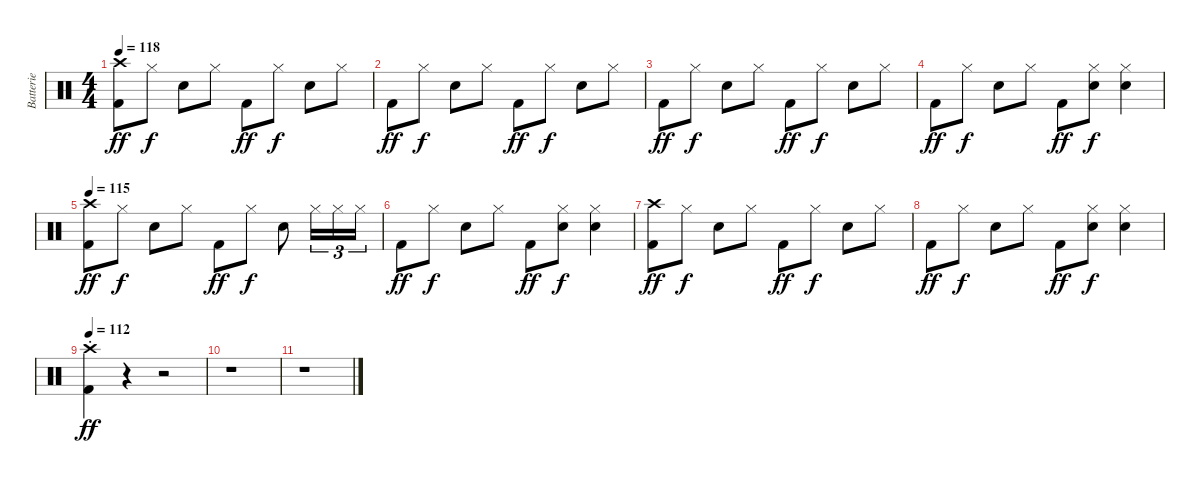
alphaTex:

\track ("Batterie" "Batterie") {instrument percussion}
\staff {score}
\articulation defaults
\ts (4 4)
\tempo 118
\clef neutral
\ks c
("Crash high (hit)" "Kick (hit) 2").8{dy ff} "Hi-Hat (closed)".8{dy f} "Snare (hit) 2".8 "Hi-Hat (closed)".8 "Kick (hit) 2".8{dy ff} "Hi-Hat (closed)".8{dy f} "Snare (hit) 2".8 "Hi-Hat (closed)".8 |
"Kick (hit) 2".8{dy ff} "Hi-Hat (closed)".8{dy f} "Snare (hit) 2".8 "Hi-Hat (closed)".8 "Kick (hit) 2".8{dy ff} "Hi-Hat (closed)".8{dy f} "Snare (hit) 2".8 "Hi-Hat (closed)".8 |
"Kick (hit) 2".8{dy ff} "Hi-Hat (closed)".8{dy f} "Snare (hit) 2".8 "Hi-Hat (closed)".8 "Kick (hit) 2".8{dy ff} "Hi-Hat (closed)".8{dy f} "Snare (hit) 2".8 "Hi-Hat (closed)".8 |
"Kick (hit) 2".8{dy ff} "Hi-Hat (closed)".8{dy f} "Snare (hit) 2".8 "Hi-Hat (closed)".8 "Kick (hit) 2".8{dy ff} ("Hi-Hat (closed)" "Snare (hit) 2").8{dy f} ("Hi-Hat (closed)" "Snare (hit) 2").4 |
\tempo 115
("Crash high (hit)" "Kick (hit) 2").8{dy ff} "Hi-Hat (closed)".8{dy f} "Snare (hit) 2".8 "Hi-Hat (closed)".8 "Kick (hit) 2".8{dy ff} "Hi-Hat (closed)".8{dy f} "Snare (hit) 2".8 "Hi-Hat (closed)".16{tu (3 2)} "Hi-Hat (closed)".16{tu (3 2)} "Hi-Hat (closed)".16{tu (3 2)} |
"Kick (hit) 2".8{dy ff} "Hi-Hat (closed)".8{dy f} "Snare (hit) 2".8 "Hi-Hat (closed)".8 "Kick (hit) 2".8{dy ff} ("Hi-Hat (closed)" "Snare (hit) 2").8{dy f} ("Hi-Hat (closed)" "Snare (hit) 2").4 |
("Crash high (hit)" "Kick (hit) 2").8{dy ff} "Hi-Hat (closed)".8{dy f} "Snare (hit) 2".8 "Hi-Hat (closed)".8 "Kick (hit) 2".8{dy ff} "Hi-Hat (closed)".8{dy f} "Snare (hit) 2".8 "Hi-Hat (closed)".8 |
"Kick (hit) 2".8{dy ff} "Hi-Hat (closed)".8{dy f} "Snare (hit) 2".8 "Hi-Hat (closed)".8 "Kick (hit) 2".8{dy ff} ("Hi-Hat (closed)" "Snare (hit) 2").8{dy f} ("Hi-Hat (closed)" "Snare (hit) 2").4 |
\tempo 112
("Crash high (hit)"{st} "Kick (hit) 2"{st}).4{dy ff} r.4 r.2 |
r.1 |
r.1
